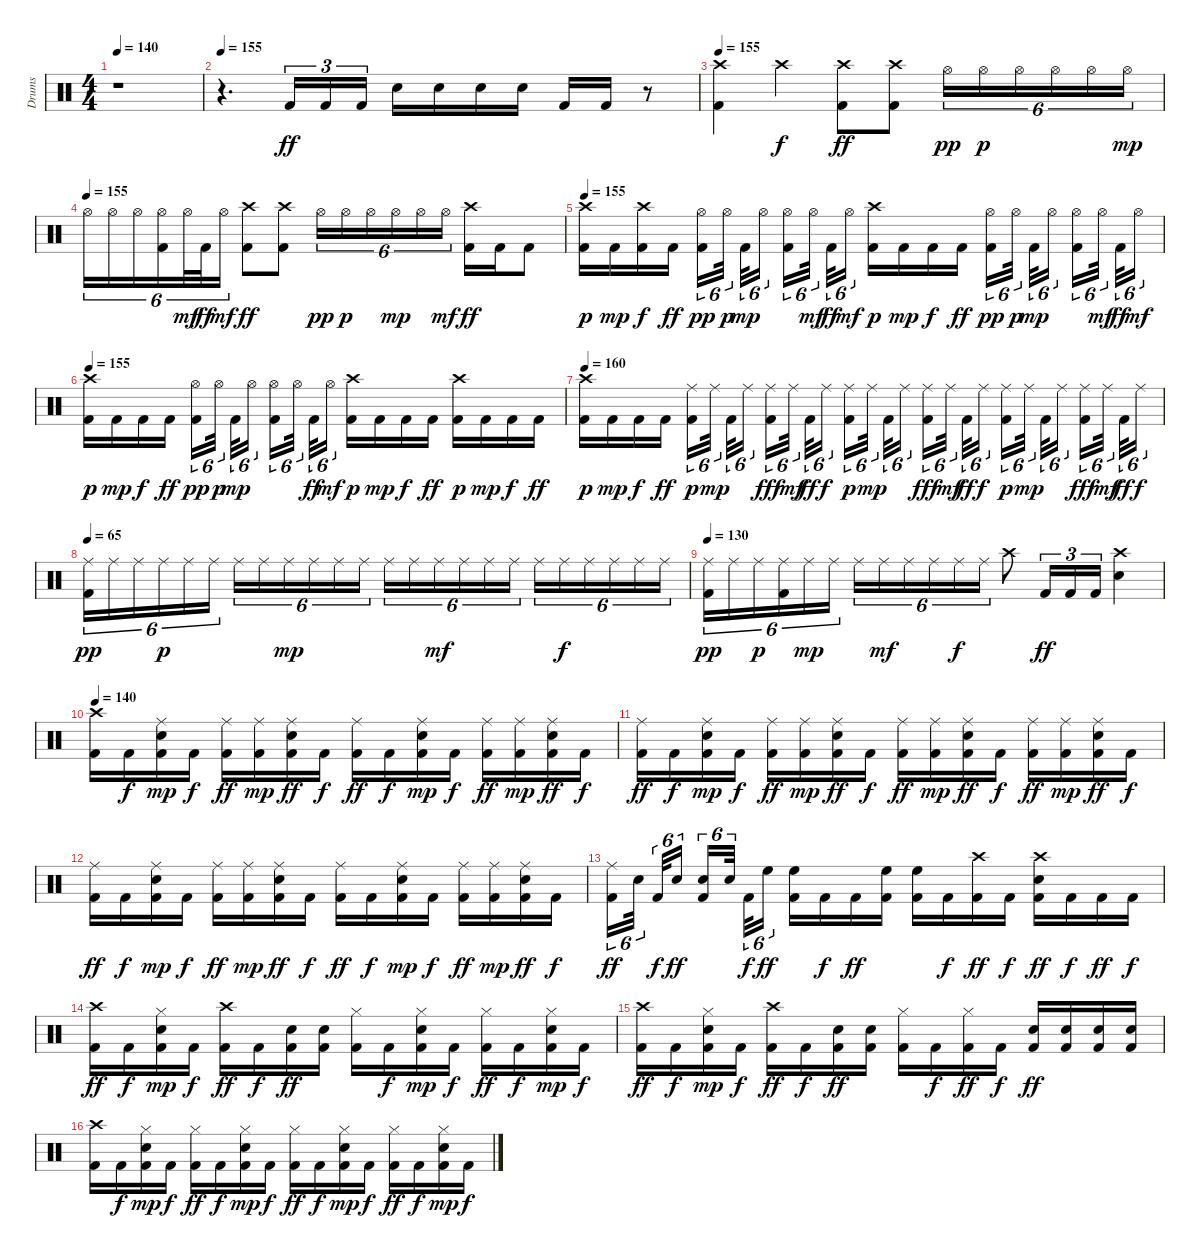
\track ("Drums" "Drums") {instrument percussion}
\staff {score}
\articulation defaults
\ts (4 4)
\tempo 140
\tempo 155
\tempo 140
\clef neutral
\ks c
r.1{dy ff} |
\tempo 155
r.4{d} "Kick (hit) 2".16{tu (3 2) volume 15} "Kick (hit) 2".16{tu (3 2)} "Kick (hit) 2".16{tu (3 2)} "Snare (hit) 2".16 "Snare (hit) 2".16 "Snare (hit) 2".16 "Snare (hit) 2".16 "Kick (hit) 2".16 "Kick (hit) 2".16 r.8 |
\tempo 155
("Crash high (hit)" "Kick (hit) 2").4 "Crash high (hit)".4{dy f} ("Crash high (hit)" "Kick (hit) 2").8{dy ff} ("Crash high (hit)" "Kick (hit) 2").8 "Hi-Hat (open)".16{tu (6 4) dy pp} "Hi-Hat (open)".16{tu (6 4) dy p} "Hi-Hat (open)".16{tu (6 4)} "Hi-Hat (open)".16{tu (6 4)} "Hi-Hat (open)".16{tu (6 4)} "Hi-Hat (open)".16{tu (6 4) dy mp} |
\tempo (155)
"Hi-Hat (open)".16{tu (6 4)} "Hi-Hat (open)".16{tu (6 4)} "Hi-Hat (open)".16{tu (6 4)} ("Kick (hit) 2" "Hi-Hat (open)").16{tu (6 4)} "Hi-Hat (open)".32{tu (6 4) dy mf} "Kick (hit) 2".32{tu (6 4) dy ff} "Hi-Hat (open)".16{tu (6 4) dy mf} ("Crash high (hit)" "Kick (hit) 2").8{dy ff} ("Crash high (hit)" "Kick (hit) 2").8 "Hi-Hat (open)".16{tu (6 4) dy pp} "Hi-Hat (open)".16{tu (6 4) dy p} "Hi-Hat (open)".16{tu (6 4)} "Hi-Hat (open)".16{tu (6 4) dy mp} "Hi-Hat (open)".16{tu (6 4)} "Hi-Hat (open)".16{tu (6 4) dy mf} ("Crash high (hit)" "Kick (hit) 2").16{dy ff} "Kick (hit) 2".16 "Kick (hit) 2".8 |
\tempo 155
("Kick (hit) 2" "Crash high (hit)").16{dy p} "Kick (hit) 2".16{dy mp} ("Crash high (hit)" "Kick (hit) 2").16{dy f} "Kick (hit) 2".16{dy ff} ("Kick (hit) 2" "Hi-Hat (open)").16{tu (6 4) dy pp} "Hi-Hat (open)".32{tu (6 4) dy p} "Kick (hit) 2".32{tu (6 4) dy mp} "Hi-Hat (open)".16{tu (6 4)} ("Hi-Hat (open)" "Kick (hit) 2").16{tu (6 4)} "Hi-Hat (open)".32{tu (6 4) dy mf} "Kick (hit) 2".32{tu (6 4) dy ff} "Hi-Hat (open)".16{tu (6 4) dy mf} ("Kick (hit) 2" "Crash high (hit)").16{dy p} "Kick (hit) 2".16{dy mp} "Kick (hit) 2".16{dy f} "Kick (hit) 2".16{dy ff} ("Kick (hit) 2" "Hi-Hat (open)").16{tu (6 4) dy pp} "Hi-Hat (open)".32{tu (6 4) dy p} "Kick (hit) 2".32{tu (6 4) dy mp} "Hi-Hat (open)".16{tu (6 4)} ("Hi-Hat (open)" "Kick (hit) 2").16{tu (6 4)} "Hi-Hat (open)".32{tu (6 4) dy mf} "Kick (hit) 2".32{tu (6 4) dy ff} "Hi-Hat (open)".16{tu (6 4) dy mf} |
\tempo 155
("Kick (hit) 2" "Crash high (hit)").16{dy p} "Kick (hit) 2".16{dy mp} "Kick (hit) 2".16{dy f} "Kick (hit) 2".16{dy ff} ("Kick (hit) 2" "Hi-Hat (open)").16{tu (6 4) dy pp} "Hi-Hat (open)".32{tu (6 4) dy p} "Kick (hit) 2".32{tu (6 4) dy mp} "Hi-Hat (open)".16{tu (6 4)} ("Hi-Hat (open)" "Kick (hit) 2").16{tu (6 4)} "Hi-Hat (open)".32{tu (6 4)} "Kick (hit) 2".32{tu (6 4) dy ff} "Hi-Hat (open)".16{tu (6 4) dy mf} ("Kick (hit) 2" "Crash high (hit)").16{dy p} "Kick (hit) 2".16{dy mp} "Kick (hit) 2".16{dy f} "Kick (hit) 2".16{dy ff} ("Kick (hit) 2" "Crash high (hit)").16{dy p} "Kick (hit) 2".16{dy mp} "Kick (hit) 2".16{dy f} "Kick (hit) 2".16{dy ff} |
\tempo 160
("Kick (hit) 2" "Crash high (hit)").16{dy p} "Kick (hit) 2".16{dy mp} "Kick (hit) 2".16{dy f} "Kick (hit) 2".16{dy ff} ("Ride (middle)" "Kick (hit) 2").16{tu (6 4) dy p} "Ride (middle)".32{tu (6 4) dy mp} "Kick (hit) 2".32{tu (6 4)} "Ride (middle)".16{tu (6 4)} ("Kick (hit) 2" "Ride (middle)").16{tu (6 4) dy fff} "Ride (middle)".32{tu (6 4) dy mf} "Kick (hit) 2".32{tu (6 4) dy ff} "Ride (middle)".16{tu (6 4) dy f} ("Ride (middle)" "Kick (hit) 2").16{tu (6 4) dy p} "Ride (middle)".32{tu (6 4) dy mp} "Kick (hit) 2".32{tu (6 4)} "Ride (middle)".16{tu (6 4)} ("Kick (hit) 2" "Ride (middle)").16{tu (6 4) dy fff} "Ride (middle)".32{tu (6 4) dy mf} "Kick (hit) 2".32{tu (6 4) dy ff} "Ride (middle)".16{tu (6 4) dy f} ("Ride (middle)" "Kick (hit) 2").16{tu (6 4) dy p} "Ride (middle)".32{tu (6 4) dy mp} "Kick (hit) 2".32{tu (6 4)} "Ride (middle)".16{tu (6 4)} ("Kick (hit) 2" "Ride (middle)").16{tu (6 4) dy fff} "Ride (middle)".32{tu (6 4) dy mf} "Kick (hit) 2".32{tu (6 4) dy ff} "Ride (middle)".16{tu (6 4) dy f} |
\tempo 65
("Kick (hit) 2" "Ride (middle)").16{tu (6 4) dy pp} "Ride (middle)".16{tu (6 4)} "Ride (middle)".16{tu (6 4)} "Ride (middle)".16{tu (6 4) dy p} "Ride (middle)".16{tu (6 4)} "Ride (middle)".16{tu (6 4)} "Ride (middle)".16{tu (6 4)} "Ride (middle)".16{tu (6 4)} "Ride (middle)".16{tu (6 4) dy mp} "Ride (middle)".16{tu (6 4)} "Ride (middle)".16{tu (6 4)} "Ride (middle)".16{tu (6 4)} "Ride (middle)".16{tu (6 4)} "Ride (middle)".16{tu (6 4)} "Ride (middle)".16{tu (6 4) dy mf} "Ride (middle)".16{tu (6 4)} "Ride (middle)".16{tu (6 4)} "Ride (middle)".16{tu (6 4)} "Ride (middle)".16{tu (6 4)} "Ride (middle)".16{tu (6 4) dy f} "Ride (middle)".16{tu (6 4)} "Ride (middle)".16{tu (6 4)} "Ride (middle)".16{tu (6 4)} "Ride (middle)".16{tu (6 4)} |
\tempo 130
("Kick (hit) 2" "Ride (middle)").16{tu (6 4) dy pp} "Ride (middle)".16{tu (6 4)} "Ride (middle)".16{tu (6 4) dy p} ("Kick (hit) 2" "Ride (middle)").16{tu (6 4)} "Ride (middle)".16{tu (6 4) dy mp} "Ride (middle)".16{tu (6 4)} "Ride (middle)".16{tu (6 4)} "Ride (middle)".16{tu (6 4) dy mf} "Ride (middle)".16{tu (6 4)} "Ride (middle)".16{tu (6 4)} "Ride (middle)".16{tu (6 4) dy f} "Ride (middle)".16{tu (6 4)} "Crash high (hit)".8 "Kick (hit) 2".16{tu (3 2) dy ff} "Kick (hit) 2".16{tu (3 2)} "Kick (hit) 2".16{tu (3 2)} ("Snare (hit) 2" "Crash high (hit)").4 |
\tempo 140
("Crash high (hit)" "Kick (hit) 2").16 "Kick (hit) 2".16{dy f} ("Kick (hit) 2" "Snare (hit) 2" "Ride (middle)").16{dy mp} "Kick (hit) 2".16{dy f} ("Ride (middle)" "Kick (hit) 2").16{dy ff} ("Ride (middle)" "Kick (hit) 2").16{dy mp} ("Kick (hit) 2" "Snare (hit) 2" "Ride (middle)").16{dy ff} "Kick (hit) 2".16{dy f} ("Ride (middle)" "Kick (hit) 2").16{dy ff} "Kick (hit) 2".16{dy f} ("Kick (hit) 2" "Snare (hit) 2" "Ride (middle)").16{dy mp} "Kick (hit) 2".16{dy f} ("Ride (middle)" "Kick (hit) 2").16{dy ff} ("Ride (middle)" "Kick (hit) 2").16{dy mp} ("Kick (hit) 2" "Snare (hit) 2" "Ride (middle)").16{dy ff} "Kick (hit) 2".16{dy f} |
("Ride (middle)" "Kick (hit) 2").16{dy ff} "Kick (hit) 2".16{dy f} ("Kick (hit) 2" "Snare (hit) 2" "Ride (middle)").16{dy mp} "Kick (hit) 2".16{dy f} ("Ride (middle)" "Kick (hit) 2").16{dy ff} ("Ride (middle)" "Kick (hit) 2").16{dy mp} ("Kick (hit) 2" "Snare (hit) 2" "Ride (middle)").16{dy ff} "Kick (hit) 2".16{dy f} ("Ride (middle)" "Kick (hit) 2").16{dy ff} ("Ride (middle)" "Kick (hit) 2").16{dy mp} ("Kick (hit) 2" "Snare (hit) 2" "Ride (middle)").16{dy ff} "Kick (hit) 2".16{dy f} ("Ride (middle)" "Kick (hit) 2").16{dy ff} ("Ride (middle)" "Kick (hit) 2").16{dy mp} ("Kick (hit) 2" "Snare (hit) 2" "Ride (middle)").16{dy ff} "Kick (hit) 2".16{dy f} |
("Ride (middle)" "Kick (hit) 2").16{dy ff} "Kick (hit) 2".16{dy f} ("Kick (hit) 2" "Snare (hit) 2" "Ride (middle)").16{dy mp} "Kick (hit) 2".16{dy f} ("Ride (middle)" "Kick (hit) 2").16{dy ff} ("Ride (middle)" "Kick (hit) 2").16{dy mp} ("Kick (hit) 2" "Snare (hit) 2" "Ride (middle)").16{dy ff} "Kick (hit) 2".16{dy f} ("Ride (middle)" "Kick (hit) 2").16{dy ff} "Kick (hit) 2".16{dy f} ("Kick (hit) 2" "Snare (hit) 2" "Ride (middle)").16{dy mp} "Kick (hit) 2".16{dy f} ("Ride (middle)" "Kick (hit) 2").16{dy ff} ("Ride (middle)" "Kick (hit) 2").16{dy mp} ("Kick (hit) 2" "Snare (hit) 2" "Ride (middle)").16{dy ff} "Kick (hit) 2".16{dy f} |
("Kick (hit) 2" "Ride (middle)").16{tu (6 4) dy ff} "Snare (hit) 2".32{tu (6 4)} "Kick (hit) 2".32{tu (6 4) dy f} "Snare (hit) 2".16{tu (6 4) dy ff} ("Kick (hit) 2" "Snare (hit) 2").16{tu (6 4)} "Snare (hit) 2".32{tu (6 4)} "Kick (hit) 2".32{tu (6 4) dy f} "High Floor Tom (hit)".16{tu (6 4) dy ff} ("Kick (hit) 2" "High Floor Tom (hit)").16 "Kick (hit) 2".16{dy f} "Kick (hit) 2".16{dy ff} ("Kick (hit) 2" "High Floor Tom (hit)").16 ("Kick (hit) 2" "High Floor Tom (hit)").16 "Kick (hit) 2".16{dy f} ("Kick (hit) 2" "Crash high (hit)").16{dy ff} "Kick (hit) 2".16{dy f} ("Snare (hit) 2" "Kick (hit) 2" "Crash high (hit)").16{dy ff} "Kick (hit) 2".16{dy f} "Kick (hit) 2".16{dy ff} "Kick (hit) 2".16{dy f} |
("Crash high (hit)" "Kick (hit) 2").16{dy ff} "Kick (hit) 2".16{dy f} ("Kick (hit) 2" "Snare (hit) 2" "Hi-Hat (closed)").16{dy mp} "Kick (hit) 2".16{dy f} ("Crash high (hit)" "Kick (hit) 2").16{dy ff} "Kick (hit) 2".16{dy f} ("Snare (hit) 2" "Kick (hit) 2").16{dy ff} ("Snare (hit) 2" "Kick (hit) 2").16 ("Hi-Hat (closed)" "Kick (hit) 2").16 "Kick (hit) 2".16{dy f} ("Kick (hit) 2" "Snare (hit) 2" "Hi-Hat (closed)").16{dy mp} "Kick (hit) 2".16{dy f} ("Hi-Hat (closed)" "Kick (hit) 2").16{dy ff} "Kick (hit) 2".16{dy f} ("Kick (hit) 2" "Snare (hit) 2" "Hi-Hat (closed)").16{dy mp} "Kick (hit) 2".16{dy f} |
("Crash high (hit)" "Kick (hit) 2").16{dy ff} "Kick (hit) 2".16{dy f} ("Kick (hit) 2" "Snare (hit) 2" "Hi-Hat (closed)").16{dy mp} "Kick (hit) 2".16{dy f} ("Crash high (hit)" "Kick (hit) 2").16{dy ff} "Kick (hit) 2".16{dy f} ("Snare (hit) 2" "Kick (hit) 2").16{dy ff} ("Snare (hit) 2" "Kick (hit) 2").16 ("Hi-Hat (closed)" "Kick (hit) 2").16 "Kick (hit) 2".16{dy f} ("Hi-Hat (closed)" "Kick (hit) 2").16{dy ff} "Kick (hit) 2".16{dy f} ("Snare (hit) 2" "Kick (hit) 2").16{dy ff} ("Snare (hit) 2" "Kick (hit) 2").16 ("Snare (hit) 2" "Kick (hit) 2").16 ("Snare (hit) 2" "Kick (hit) 2").16 |
("Crash high (hit)" "Kick (hit) 2").16 "Kick (hit) 2".16{dy f} ("Kick (hit) 2" "Snare (hit) 2" "Hi-Hat (closed)").16{dy mp} "Kick (hit) 2".16{dy f} ("Hi-Hat (closed)" "Kick (hit) 2").16{dy ff} "Kick (hit) 2".16{dy f} ("Kick (hit) 2" "Snare (hit) 2" "Hi-Hat (closed)").16{dy mp} "Kick (hit) 2".16{dy f} ("Hi-Hat (closed)" "Kick (hit) 2").16{dy ff} "Kick (hit) 2".16{dy f} ("Kick (hit) 2" "Snare (hit) 2" "Hi-Hat (closed)").16{dy mp} "Kick (hit) 2".16{dy f} ("Hi-Hat (closed)" "Kick (hit) 2").16{dy ff} "Kick (hit) 2".16{dy f} ("Kick (hit) 2" "Snare (hit) 2" "Hi-Hat (closed)").16{dy mp} "Kick (hit) 2".16{dy f}
